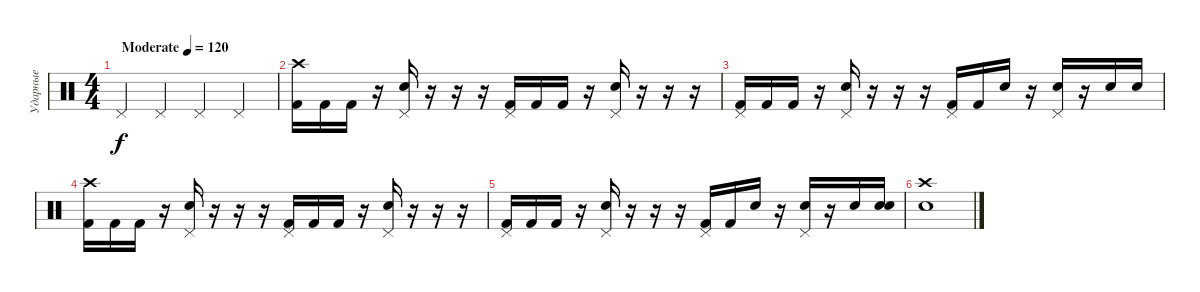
\track ("Ударные" "Ударные") {instrument percussion}
\staff {score}
\articulation defaults
\ts (4 4)
\tempo (120 "Moderate")
\clef neutral
\ks c "Pedal Hi-Hat (hit)".4{dy f} "Pedal Hi-Hat (hit)".4 "Pedal Hi-Hat (hit)".4 "Pedal Hi-Hat (hit)".4
|
("Crash high (hit)" "Kick (hit) 2").16 "Kick (hit) 2".16 "Kick (hit) 2".16 r.16 ("Pedal Hi-Hat (hit)" "Electric Snare (hit)").16 r.16 r.16 r.16 ("Pedal Hi-Hat (hit)" "Kick (hit) 2").16 "Kick (hit) 2".16 "Kick (hit) 2".16 r.16 ("Pedal Hi-Hat (hit)" "Electric Snare (hit)").16 r.16 r.16 r.16 |
("Pedal Hi-Hat (hit)" "Kick (hit) 2").16 "Kick (hit) 2".16 "Kick (hit) 2".16 r.16 ("Pedal Hi-Hat (hit)" "Electric Snare (hit)").16 r.16 r.16 r.16 ("Pedal Hi-Hat (hit)" "Kick (hit) 2").16 "Kick (hit) 2".16 "Electric Snare (hit)".16 r.16 ("Pedal Hi-Hat (hit)" "Electric Snare (hit)").16 r.16 "Electric Snare (hit)".16 "Electric Snare (hit)".16 |
("Crash high (hit)" "Kick (hit) 2").16 "Kick (hit) 2".16 "Kick (hit) 2".16 r.16 ("Pedal Hi-Hat (hit)" "Electric Snare (hit)").16 r.16 r.16 r.16 ("Pedal Hi-Hat (hit)" "Kick (hit) 2").16 "Kick (hit) 2".16 "Kick (hit) 2".16 r.16 ("Pedal Hi-Hat (hit)" "Electric Snare (hit)").16 r.16 r.16 r.16 |
("Pedal Hi-Hat (hit)" "Kick (hit) 2").16 "Kick (hit) 2".16 "Kick (hit) 2".16 r.16 ("Pedal Hi-Hat (hit)" "Electric Snare (hit)").16 r.16 r.16 r.16 ("Pedal Hi-Hat (hit)" "Kick (hit) 2").16 "Kick (hit) 2".16 "Electric Snare (hit)".16 r.16 ("Pedal Hi-Hat (hit)" "Electric Snare (hit)").16 r.16 "Electric Snare (hit)".16 ("Electric Snare (hit)" "Electric Snare (hit)").16 |
("Crash high (hit)" "Electric Snare (hit)").1
